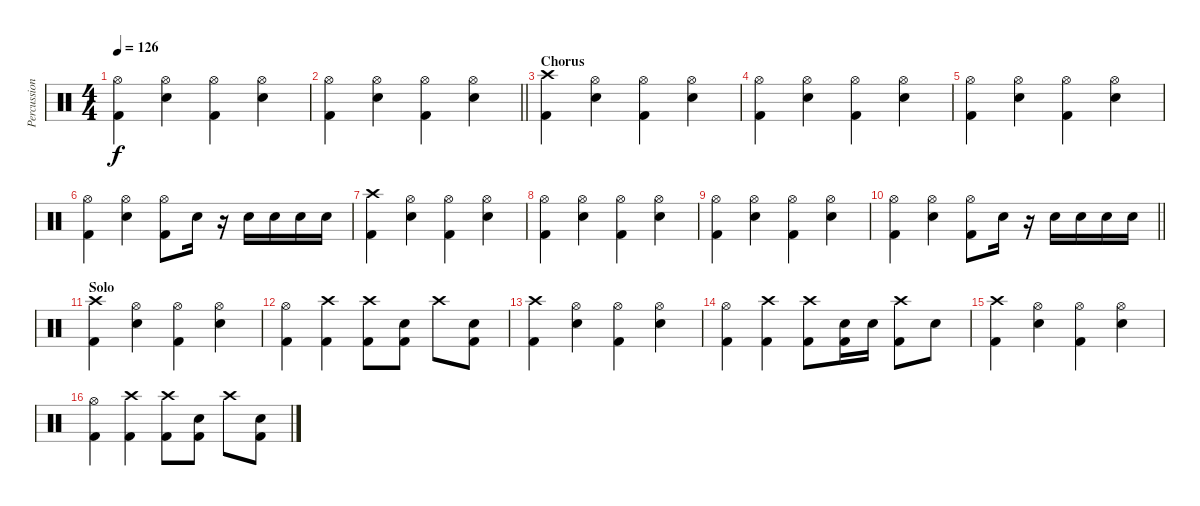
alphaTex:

\track ("Percussion" "Percussion") {instrument percussion}
\staff {score}
\articulation defaults
\ts (4 4)
\tempo 126
\clef neutral
\ks c
("Hi-Hat (open)" "Kick (hit) 2").4{dy f} ("Hi-Hat (open)" "Electric Snare (hit)").4 ("Hi-Hat (open)" "Kick (hit) 2").4 ("Hi-Hat (open)" "Electric Snare (hit)").4 |
\barLineRight lightlight
("Hi-Hat (open)" "Kick (hit) 2").4 ("Hi-Hat (open)" "Electric Snare (hit)").4 ("Hi-Hat (open)" "Kick (hit) 2").4 ("Hi-Hat (open)" "Electric Snare (hit)").4 |
\section ("" "Chorus")
("Crash high (hit)" "Kick (hit) 2").4 ("Hi-Hat (open)" "Electric Snare (hit)").4 ("Hi-Hat (open)" "Kick (hit) 2").4 ("Hi-Hat (open)" "Electric Snare (hit)").4 |
("Hi-Hat (open)" "Kick (hit) 2").4 ("Hi-Hat (open)" "Electric Snare (hit)").4 ("Hi-Hat (open)" "Kick (hit) 2").4 ("Hi-Hat (open)" "Electric Snare (hit)").4 |
("Hi-Hat (open)" "Kick (hit) 2").4 ("Hi-Hat (open)" "Electric Snare (hit)").4 ("Hi-Hat (open)" "Kick (hit) 2").4 ("Hi-Hat (open)" "Electric Snare (hit)").4 |
("Hi-Hat (open)" "Kick (hit) 2").4 ("Hi-Hat (open)" "Electric Snare (hit)").4 ("Hi-Hat (open)" "Kick (hit) 2").8 "Electric Snare (hit)".16 r.16 "Electric Snare (hit)".16 "Electric Snare (hit)".16 "Electric Snare (hit)".16 "Electric Snare (hit)".16 |
("Crash high (hit)" "Kick (hit) 2").4 ("Hi-Hat (open)" "Electric Snare (hit)").4 ("Hi-Hat (open)" "Kick (hit) 2").4 ("Hi-Hat (open)" "Electric Snare (hit)").4 |
("Hi-Hat (open)" "Kick (hit) 2").4 ("Hi-Hat (open)" "Electric Snare (hit)").4 ("Hi-Hat (open)" "Kick (hit) 2").4 ("Hi-Hat (open)" "Electric Snare (hit)").4 |
("Hi-Hat (open)" "Kick (hit) 2").4 ("Hi-Hat (open)" "Electric Snare (hit)").4 ("Hi-Hat (open)" "Kick (hit) 2").4 ("Hi-Hat (open)" "Electric Snare (hit)").4 |
\barLineRight lightlight
("Hi-Hat (open)" "Kick (hit) 2").4 ("Hi-Hat (open)" "Electric Snare (hit)").4 ("Hi-Hat (open)" "Kick (hit) 2").8 "Electric Snare (hit)".16 r.16 "Electric Snare (hit)".16 "Electric Snare (hit)".16 "Electric Snare (hit)".16 "Electric Snare (hit)".16 |
\section ("" "Solo")
("Crash high (hit)" "Kick (hit) 2").4 ("Hi-Hat (open)" "Electric Snare (hit)").4 ("Hi-Hat (open)" "Kick (hit) 2").4 ("Hi-Hat (open)" "Electric Snare (hit)").4 |
("Hi-Hat (open)" "Kick (hit) 2").4 ("Crash high (hit)" "Kick (hit) 2").4 ("Crash high (hit)" "Kick (hit) 2").8 ("Electric Snare (hit)" "Kick (hit) 2").8 "Crash high (hit)".8 ("Electric Snare (hit)" "Kick (hit) 2").8 |
("Crash high (hit)" "Kick (hit) 2").4 ("Hi-Hat (open)" "Electric Snare (hit)").4 ("Hi-Hat (open)" "Kick (hit) 2").4 ("Hi-Hat (open)" "Electric Snare (hit)").4 |
("Hi-Hat (open)" "Kick (hit) 2").4 ("Crash high (hit)" "Kick (hit) 2").4 ("Crash high (hit)" "Kick (hit) 2").8 ("Electric Snare (hit)" "Kick (hit) 2").16 "Electric Snare (hit)".16 ("Crash high (hit)" "Kick (hit) 2").8 "Electric Snare (hit)".8 |
("Crash high (hit)" "Kick (hit) 2").4 ("Hi-Hat (open)" "Electric Snare (hit)").4 ("Hi-Hat (open)" "Kick (hit) 2").4 ("Hi-Hat (open)" "Electric Snare (hit)").4 |
("Hi-Hat (open)" "Kick (hit) 2").4 ("Crash high (hit)" "Kick (hit) 2").4 ("Crash high (hit)" "Kick (hit) 2").8 ("Electric Snare (hit)" "Kick (hit) 2").8 "Crash high (hit)".8 ("Electric Snare (hit)" "Kick (hit) 2").8
